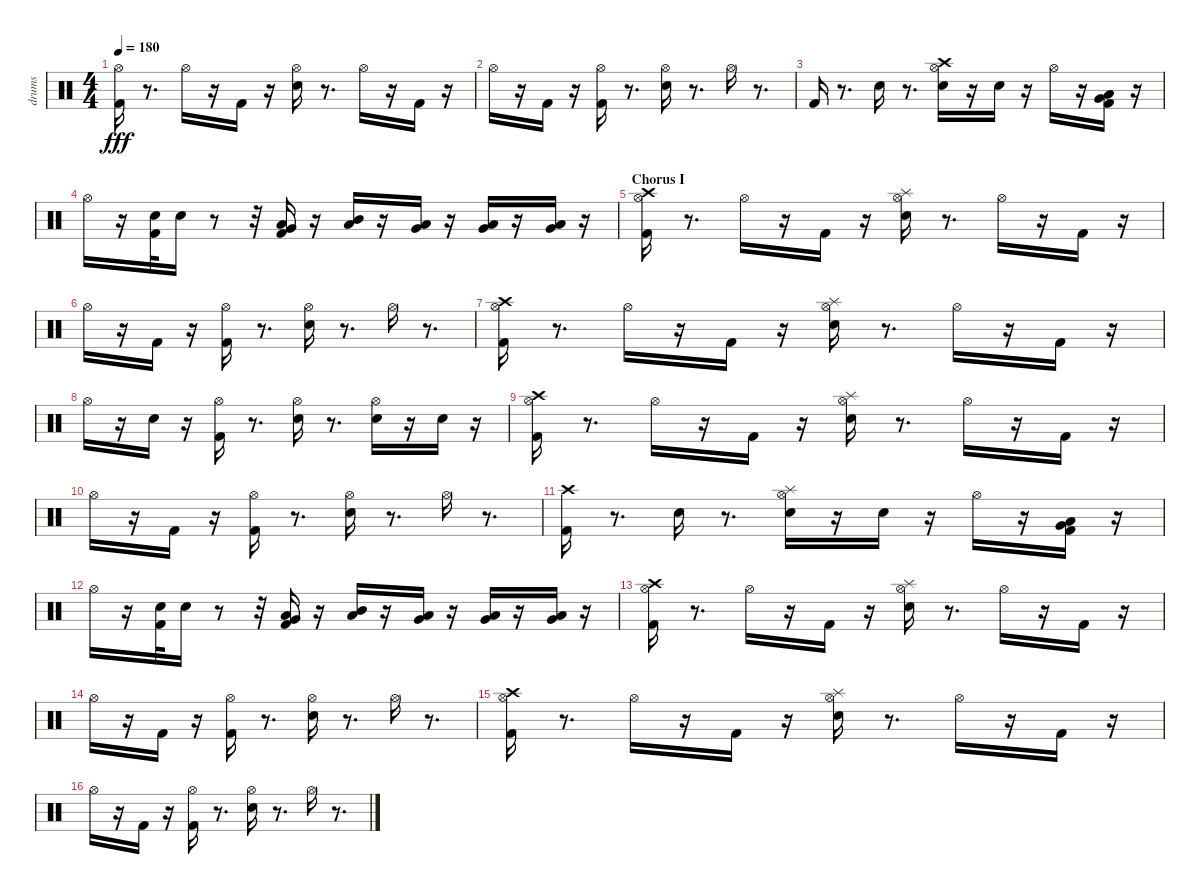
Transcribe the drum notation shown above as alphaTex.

\track ("drums" "drums") {instrument percussion}
\staff {score}
\articulation defaults
\ts (4 4)
\tempo 180
\clef neutral
\ks c
("Kick (hit) 2" "Hi-Hat (open)").16{dy fff} r.8{d} "Hi-Hat (open)".16 r.16 "Kick (hit) 2".16 r.16 ("Electric Snare (hit)" "Hi-Hat (open)").16 r.8{d} "Hi-Hat (open)".16 r.16 "Kick (hit) 2".16 r.16 |
"Hi-Hat (open)".16 r.16 "Kick (hit) 2".16 r.16 ("Hi-Hat (open)" "Kick (hit) 2").16 r.8{d} ("Hi-Hat (open)" "Electric Snare (hit)").16 r.8{d} "Hi-Hat (open)".16 r.8{d} |
"Kick (hit) 2".16 r.8{d} "Electric Snare (hit)".16 r.8{d} ("Crash high (hit)" "Hi-Hat (open)" "Electric Snare (hit)").16 r.16 "Electric Snare (hit)".16 r.16 "Hi-Hat (open)".16 r.16 ("Very Low Tom (hit)" "Low Floor Tom (hit)" "Kick (hit) 2").16 r.16 |
"Hi-Hat (open)".16 r.16 ("Electric Snare (hit)" "Kick (hit) 2").32 "Electric Snare (hit)".16 r.8 r.32 ("Low Tom (hit)" "Very Low Tom (hit)" "Kick (hit) 2").16 r.16 ("Mid Tom (hit)" "Low Tom (hit)").16 r.16 ("Low Tom (hit)" "Very Low Tom (hit)").16 r.16 ("Low Tom (hit)" "Very Low Tom (hit)").16 r.16 ("Very Low Tom (hit)" "Low Floor Tom (hit)").16 r.16 |
\section ("" "Chorus I")
("Crash high (hit)" "Kick (hit) 2" "Hi-Hat (open)").16 r.8{d} "Hi-Hat (open)".16 r.16 "Kick (hit) 2".16 r.16 ("Electric Snare (hit)" "Hi-Hat (open)" "Splash (hit)").16 r.8{d} "Hi-Hat (open)".16 r.16 "Kick (hit) 2".16 r.16 |
"Hi-Hat (open)".16 r.16 "Kick (hit) 2".16 r.16 ("Hi-Hat (open)" "Kick (hit) 2").16 r.8{d} ("Hi-Hat (open)" "Electric Snare (hit)").16 r.8{d} "Hi-Hat (open)".16 r.8{d} |
("Crash high (hit)" "Kick (hit) 2" "Hi-Hat (open)").16 r.8{d} "Hi-Hat (open)".16 r.16 "Kick (hit) 2".16 r.16 ("Splash (hit)" "Electric Snare (hit)" "Hi-Hat (open)").16 r.8{d} "Hi-Hat (open)".16 r.16 "Kick (hit) 2".16 r.16 |
"Hi-Hat (open)".16 r.16 "Electric Snare (hit)".16 r.16 ("Hi-Hat (open)" "Kick (hit) 2").16 r.8{d} ("Hi-Hat (open)" "Electric Snare (hit)").16 r.8{d} ("Hi-Hat (open)" "Electric Snare (hit)").16 r.16 "Electric Snare (hit)".16 r.16 |
("Crash high (hit)" "Kick (hit) 2" "Hi-Hat (open)").16 r.8{d} "Hi-Hat (open)".16 r.16 "Kick (hit) 2".16 r.16 ("Splash (hit)" "Electric Snare (hit)" "Hi-Hat (open)").16 r.8{d} "Hi-Hat (open)".16 r.16 "Kick (hit) 2".16 r.16 |
"Hi-Hat (open)".16 r.16 "Kick (hit) 2".16 r.16 ("Hi-Hat (open)" "Kick (hit) 2").16 r.8{d} ("Hi-Hat (open)" "Electric Snare (hit)").16 r.8{d} "Hi-Hat (open)".16 r.8{d} |
("Crash high (hit)" "Kick (hit) 2").16 r.8{d} "Electric Snare (hit)".16 r.8{d} ("Splash (hit)" "Hi-Hat (open)" "Electric Snare (hit)").16 r.16 "Electric Snare (hit)".16 r.16 "Hi-Hat (open)".16 r.16 ("Very Low Tom (hit)" "Low Floor Tom (hit)" "Kick (hit) 2").16 r.16 |
"Hi-Hat (open)".16 r.16 ("Electric Snare (hit)" "Kick (hit) 2").32 "Electric Snare (hit)".16 r.8 r.32 ("Low Tom (hit)" "Very Low Tom (hit)" "Kick (hit) 2").16 r.16 ("Low Tom (hit)" "Mid Tom (hit)").16 r.16 ("Very Low Tom (hit)" "Low Tom (hit)").16 r.16 ("Low Tom (hit)" "Very Low Tom (hit)").16 r.16 ("Very Low Tom (hit)" "Low Floor Tom (hit)").16 r.16 |
("Crash high (hit)" "Kick (hit) 2" "Hi-Hat (open)").16 r.8{d} "Hi-Hat (open)".16 r.16 "Kick (hit) 2".16 r.16 ("Splash (hit)" "Electric Snare (hit)" "Hi-Hat (open)").16 r.8{d} "Hi-Hat (open)".16 r.16 "Kick (hit) 2".16 r.16 |
"Hi-Hat (open)".16 r.16 "Kick (hit) 2".16 r.16 ("Hi-Hat (open)" "Kick (hit) 2").16 r.8{d} ("Hi-Hat (open)" "Electric Snare (hit)").16 r.8{d} "Hi-Hat (open)".16 r.8{d} |
("Crash high (hit)" "Kick (hit) 2" "Hi-Hat (open)").16 r.8{d} "Hi-Hat (open)".16 r.16 "Kick (hit) 2".16 r.16 ("Splash (hit)" "Electric Snare (hit)" "Hi-Hat (open)").16 r.8{d} "Hi-Hat (open)".16 r.16 "Kick (hit) 2".16 r.16 |
"Hi-Hat (open)".16 r.16 "Kick (hit) 2".16 r.16 ("Hi-Hat (open)" "Kick (hit) 2").16 r.8{d} ("Hi-Hat (open)" "Electric Snare (hit)").16 r.8{d} "Hi-Hat (open)".16 r.8{d}
